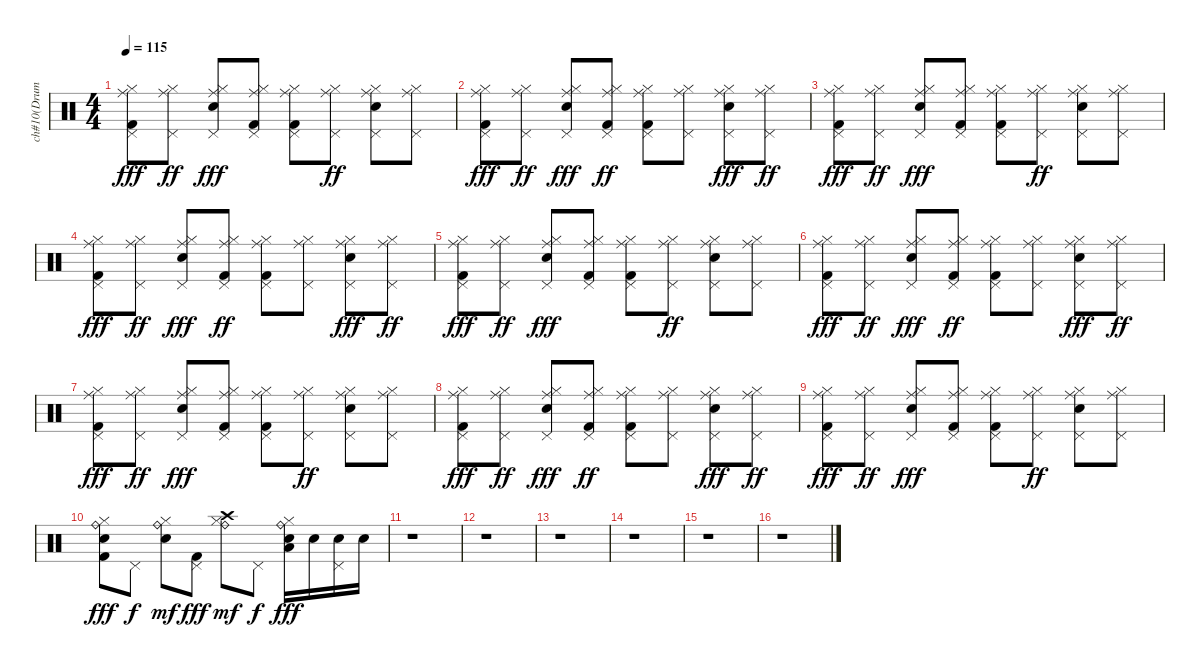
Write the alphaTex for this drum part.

\track ("ch#10(Drums)" "ch#10(Drum") {instrument percussion}
\staff {score}
\articulation defaults
\ts (4 4)
\tempo 115
\clef neutral
\ks c
("Pedal Hi-Hat (hit)" "Ride (middle)" "Hi-Hat (closed)" "Kick (hit) 2").8{dy fff} ("Pedal Hi-Hat (hit)" "Ride (middle)" "Hi-Hat (closed)").8{dy ff} ("Pedal Hi-Hat (hit)" "Hi-Hat (closed)" "Electric Snare (hit)" "Ride (middle)").8{dy fff} ("Pedal Hi-Hat (hit)" "Hi-Hat (closed)" "Kick (hit) 2" "Ride (middle)").8 ("Pedal Hi-Hat (hit)" "Hi-Hat (closed)" "Kick (hit) 2" "Ride (middle)").8 ("Pedal Hi-Hat (hit)" "Hi-Hat (closed)" "Ride (middle)").8{dy ff} ("Pedal Hi-Hat (hit)" "Electric Snare (hit)" "Hi-Hat (closed)" "Ride (middle)").8 ("Pedal Hi-Hat (hit)" "Hi-Hat (closed)" "Ride (middle)").8 |
("Hi-Hat (closed)" "Kick (hit) 2" "Ride (middle)" "Pedal Hi-Hat (hit)").8{dy fff} ("Pedal Hi-Hat (hit)" "Hi-Hat (closed)" "Ride (middle)").8{dy ff} ("Pedal Hi-Hat (hit)" "Hi-Hat (closed)" "Ride (middle)" "Electric Snare (hit)").8{dy fff} ("Ride (middle)" "Kick (hit) 2" "Hi-Hat (closed)" "Pedal Hi-Hat (hit)").8{dy ff} ("Pedal Hi-Hat (hit)" "Ride (middle)" "Kick (hit) 2" "Hi-Hat (closed)").8 ("Ride (middle)" "Hi-Hat (closed)" "Pedal Hi-Hat (hit)").8 ("Pedal Hi-Hat (hit)" "Ride (middle)" "Hi-Hat (closed)" "Electric Snare (hit)").8{dy fff} ("Ride (middle)" "Hi-Hat (closed)" "Pedal Hi-Hat (hit)").8{dy ff} |
("Pedal Hi-Hat (hit)" "Ride (middle)" "Hi-Hat (closed)" "Kick (hit) 2").8{dy fff} ("Pedal Hi-Hat (hit)" "Ride (middle)" "Hi-Hat (closed)").8{dy ff} ("Pedal Hi-Hat (hit)" "Hi-Hat (closed)" "Electric Snare (hit)" "Ride (middle)").8{dy fff} ("Pedal Hi-Hat (hit)" "Hi-Hat (closed)" "Kick (hit) 2" "Ride (middle)").8 ("Pedal Hi-Hat (hit)" "Hi-Hat (closed)" "Kick (hit) 2" "Ride (middle)").8 ("Pedal Hi-Hat (hit)" "Hi-Hat (closed)" "Ride (middle)").8{dy ff} ("Pedal Hi-Hat (hit)" "Electric Snare (hit)" "Hi-Hat (closed)" "Ride (middle)").8 ("Pedal Hi-Hat (hit)" "Hi-Hat (closed)" "Ride (middle)").8 |
("Hi-Hat (closed)" "Kick (hit) 2" "Ride (middle)" "Pedal Hi-Hat (hit)").8{dy fff} ("Pedal Hi-Hat (hit)" "Hi-Hat (closed)" "Ride (middle)").8{dy ff} ("Pedal Hi-Hat (hit)" "Hi-Hat (closed)" "Ride (middle)" "Electric Snare (hit)").8{dy fff} ("Ride (middle)" "Kick (hit) 2" "Hi-Hat (closed)" "Pedal Hi-Hat (hit)").8{dy ff} ("Pedal Hi-Hat (hit)" "Ride (middle)" "Kick (hit) 2" "Hi-Hat (closed)").8 ("Ride (middle)" "Hi-Hat (closed)" "Pedal Hi-Hat (hit)").8 ("Pedal Hi-Hat (hit)" "Ride (middle)" "Hi-Hat (closed)" "Electric Snare (hit)").8{dy fff} ("Ride (middle)" "Hi-Hat (closed)" "Pedal Hi-Hat (hit)").8{dy ff} |
("Pedal Hi-Hat (hit)" "Ride (middle)" "Hi-Hat (closed)" "Kick (hit) 2").8{dy fff} ("Pedal Hi-Hat (hit)" "Ride (middle)" "Hi-Hat (closed)").8{dy ff} ("Pedal Hi-Hat (hit)" "Hi-Hat (closed)" "Electric Snare (hit)" "Ride (middle)").8{dy fff} ("Pedal Hi-Hat (hit)" "Hi-Hat (closed)" "Kick (hit) 2" "Ride (middle)").8 ("Pedal Hi-Hat (hit)" "Hi-Hat (closed)" "Kick (hit) 2" "Ride (middle)").8 ("Pedal Hi-Hat (hit)" "Hi-Hat (closed)" "Ride (middle)").8{dy ff} ("Pedal Hi-Hat (hit)" "Electric Snare (hit)" "Hi-Hat (closed)" "Ride (middle)").8 ("Pedal Hi-Hat (hit)" "Hi-Hat (closed)" "Ride (middle)").8 |
("Hi-Hat (closed)" "Kick (hit) 2" "Ride (middle)" "Pedal Hi-Hat (hit)").8{dy fff} ("Pedal Hi-Hat (hit)" "Hi-Hat (closed)" "Ride (middle)").8{dy ff} ("Pedal Hi-Hat (hit)" "Hi-Hat (closed)" "Ride (middle)" "Electric Snare (hit)").8{dy fff} ("Ride (middle)" "Kick (hit) 2" "Hi-Hat (closed)" "Pedal Hi-Hat (hit)").8{dy ff} ("Pedal Hi-Hat (hit)" "Ride (middle)" "Kick (hit) 2" "Hi-Hat (closed)").8 ("Ride (middle)" "Hi-Hat (closed)" "Pedal Hi-Hat (hit)").8 ("Pedal Hi-Hat (hit)" "Ride (middle)" "Hi-Hat (closed)" "Electric Snare (hit)").8{dy fff} ("Ride (middle)" "Hi-Hat (closed)" "Pedal Hi-Hat (hit)").8{dy ff} |
("Pedal Hi-Hat (hit)" "Ride (middle)" "Hi-Hat (closed)" "Kick (hit) 2").8{dy fff} ("Pedal Hi-Hat (hit)" "Ride (middle)" "Hi-Hat (closed)").8{dy ff} ("Pedal Hi-Hat (hit)" "Hi-Hat (closed)" "Electric Snare (hit)" "Ride (middle)").8{dy fff} ("Pedal Hi-Hat (hit)" "Hi-Hat (closed)" "Kick (hit) 2" "Ride (middle)").8 ("Pedal Hi-Hat (hit)" "Hi-Hat (closed)" "Kick (hit) 2" "Ride (middle)").8 ("Pedal Hi-Hat (hit)" "Hi-Hat (closed)" "Ride (middle)").8{dy ff} ("Pedal Hi-Hat (hit)" "Electric Snare (hit)" "Hi-Hat (closed)" "Ride (middle)").8 ("Pedal Hi-Hat (hit)" "Hi-Hat (closed)" "Ride (middle)").8 |
("Hi-Hat (closed)" "Kick (hit) 2" "Ride (middle)" "Pedal Hi-Hat (hit)").8{dy fff} ("Pedal Hi-Hat (hit)" "Hi-Hat (closed)" "Ride (middle)").8{dy ff} ("Pedal Hi-Hat (hit)" "Hi-Hat (closed)" "Ride (middle)" "Electric Snare (hit)").8{dy fff} ("Ride (middle)" "Kick (hit) 2" "Hi-Hat (closed)" "Pedal Hi-Hat (hit)").8{dy ff} ("Pedal Hi-Hat (hit)" "Ride (middle)" "Kick (hit) 2" "Hi-Hat (closed)").8 ("Ride (middle)" "Hi-Hat (closed)" "Pedal Hi-Hat (hit)").8 ("Pedal Hi-Hat (hit)" "Ride (middle)" "Hi-Hat (closed)" "Electric Snare (hit)").8{dy fff} ("Ride (middle)" "Hi-Hat (closed)" "Pedal Hi-Hat (hit)").8{dy ff} |
("Pedal Hi-Hat (hit)" "Ride (middle)" "Hi-Hat (closed)" "Kick (hit) 2").8{dy fff} ("Pedal Hi-Hat (hit)" "Ride (middle)" "Hi-Hat (closed)").8{dy ff} ("Pedal Hi-Hat (hit)" "Hi-Hat (closed)" "Electric Snare (hit)" "Ride (middle)").8{dy fff} ("Pedal Hi-Hat (hit)" "Hi-Hat (closed)" "Kick (hit) 2" "Ride (middle)").8 ("Pedal Hi-Hat (hit)" "Hi-Hat (closed)" "Kick (hit) 2" "Ride (middle)").8 ("Pedal Hi-Hat (hit)" "Hi-Hat (closed)" "Ride (middle)").8{dy ff} ("Pedal Hi-Hat (hit)" "Electric Snare (hit)" "Hi-Hat (closed)" "Ride (middle)").8 ("Pedal Hi-Hat (hit)" "Hi-Hat (closed)" "Ride (middle)").8 |
("Electric Snare (hit)" "Ride (bell)" "Hi-Hat (closed)" "Kick (hit) 2").8{dy fff} "Pedal Hi-Hat (hit)".8{dy f} ("Electric Snare (hit)" "Ride (bell)" "Hi-Hat (closed)").8{dy mf} ("Kick (hit) 2" "Pedal Hi-Hat (hit)").8{dy fff} ("Crash high (hit)" "Ride (bell)" "Hi-Hat (closed)").8{dy mf} "Pedal Hi-Hat (hit)".8{dy f} ("Electric Snare (hit)" "Ride (bell)" "Low Floor Tom (hit)" "Hi-Hat (closed)").16{dy fff} "Electric Snare (hit)".16 ("Electric Snare (hit)" "Pedal Hi-Hat (hit)").16 "Electric Snare (hit)".16 |
r.1 |
r.1 |
r.1 |
r.1 |
r.1 |
r.1
